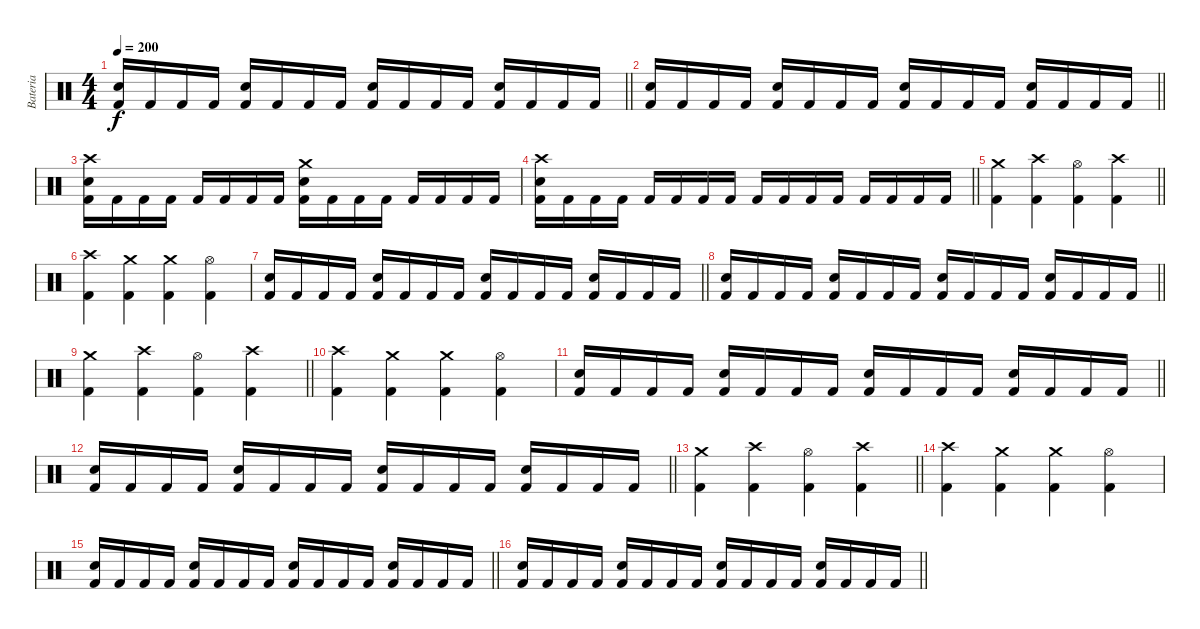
\track ("Bateria" "Bateria") {instrument percussion}
\staff {score}
\articulation defaults
\ts (4 4)
\tempo 200
\clef neutral
\barLineRight lightlight
\ks c
("Electric Snare (hit)" "Kick (hit) 2").16{dy f} "Kick (hit) 2".16 "Kick (hit) 2".16 "Kick (hit) 2".16 ("Electric Snare (hit)" "Kick (hit) 2").16 "Kick (hit) 2".16 "Kick (hit) 2".16 "Kick (hit) 2".16 ("Electric Snare (hit)" "Kick (hit) 2").16 "Kick (hit) 2".16 "Kick (hit) 2".16 "Kick (hit) 2".16 ("Electric Snare (hit)" "Kick (hit) 2").16 "Kick (hit) 2".16 "Kick (hit) 2".16 "Kick (hit) 2".16 |
\barLineRight lightlight
("Electric Snare (hit)" "Kick (hit) 2").16 "Kick (hit) 2".16 "Kick (hit) 2".16 "Kick (hit) 2".16 ("Electric Snare (hit)" "Kick (hit) 2").16 "Kick (hit) 2".16 "Kick (hit) 2".16 "Kick (hit) 2".16 ("Electric Snare (hit)" "Kick (hit) 2").16 "Kick (hit) 2".16 "Kick (hit) 2".16 "Kick (hit) 2".16 ("Electric Snare (hit)" "Kick (hit) 2").16 "Kick (hit) 2".16 "Kick (hit) 2".16 "Kick (hit) 2".16 |
("Crash high (hit)" "Electric Snare (hit)" "Kick (hit) 2").16 "Kick (hit) 2".16 "Kick (hit) 2".16 "Kick (hit) 2".16 "Kick (hit) 2".16 "Kick (hit) 2".16 "Kick (hit) 2".16 "Kick (hit) 2".16 ("Crash medium (hit)" "Electric Snare (hit)" "Kick (hit) 2").16 "Kick (hit) 2".16 "Kick (hit) 2".16 "Kick (hit) 2".16 "Kick (hit) 2".16 "Kick (hit) 2".16 "Kick (hit) 2".16 "Kick (hit) 2".16 |
\barLineRight lightlight
("Crash high (hit)" "Electric Snare (hit)" "Kick (hit) 2").16 "Kick (hit) 2".16 "Kick (hit) 2".16 "Kick (hit) 2".16 "Kick (hit) 2".16 "Kick (hit) 2".16 "Kick (hit) 2".16 "Kick (hit) 2".16 "Kick (hit) 2".16 "Kick (hit) 2".16 "Kick (hit) 2".16 "Kick (hit) 2".16 "Kick (hit) 2".16 "Kick (hit) 2".16 "Kick (hit) 2".16 "Kick (hit) 2".16 |
\barLineRight lightlight
("Crash medium (hit)" "Kick (hit) 2").4 ("Crash high (hit)" "Kick (hit) 2").4 ("Hi-Hat (open)" "Kick (hit) 2").4 ("Crash high (hit)" "Kick (hit) 2").4 |
("Crash high (hit)" "Kick (hit) 2").4 ("Crash medium (hit)" "Kick (hit) 2").4 ("Crash medium (hit)" "Kick (hit) 2").4 ("Hi-Hat (open)" "Kick (hit) 2").4 |
\barLineRight lightlight
("Electric Snare (hit)" "Kick (hit) 2").16 "Kick (hit) 2".16 "Kick (hit) 2".16 "Kick (hit) 2".16 ("Electric Snare (hit)" "Kick (hit) 2").16 "Kick (hit) 2".16 "Kick (hit) 2".16 "Kick (hit) 2".16 ("Electric Snare (hit)" "Kick (hit) 2").16 "Kick (hit) 2".16 "Kick (hit) 2".16 "Kick (hit) 2".16 ("Electric Snare (hit)" "Kick (hit) 2").16 "Kick (hit) 2".16 "Kick (hit) 2".16 "Kick (hit) 2".16 |
\barLineRight lightlight
("Electric Snare (hit)" "Kick (hit) 2").16 "Kick (hit) 2".16 "Kick (hit) 2".16 "Kick (hit) 2".16 ("Electric Snare (hit)" "Kick (hit) 2").16 "Kick (hit) 2".16 "Kick (hit) 2".16 "Kick (hit) 2".16 ("Electric Snare (hit)" "Kick (hit) 2").16 "Kick (hit) 2".16 "Kick (hit) 2".16 "Kick (hit) 2".16 ("Electric Snare (hit)" "Kick (hit) 2").16 "Kick (hit) 2".16 "Kick (hit) 2".16 "Kick (hit) 2".16 |
\barLineRight lightlight
("Crash medium (hit)" "Kick (hit) 2").4 ("Crash high (hit)" "Kick (hit) 2").4 ("Hi-Hat (open)" "Kick (hit) 2").4 ("Crash high (hit)" "Kick (hit) 2").4 |
("Crash high (hit)" "Kick (hit) 2").4 ("Crash medium (hit)" "Kick (hit) 2").4 ("Crash medium (hit)" "Kick (hit) 2").4 ("Hi-Hat (open)" "Kick (hit) 2").4 |
\barLineRight lightlight
("Electric Snare (hit)" "Kick (hit) 2").16 "Kick (hit) 2".16 "Kick (hit) 2".16 "Kick (hit) 2".16 ("Electric Snare (hit)" "Kick (hit) 2").16 "Kick (hit) 2".16 "Kick (hit) 2".16 "Kick (hit) 2".16 ("Electric Snare (hit)" "Kick (hit) 2").16 "Kick (hit) 2".16 "Kick (hit) 2".16 "Kick (hit) 2".16 ("Electric Snare (hit)" "Kick (hit) 2").16 "Kick (hit) 2".16 "Kick (hit) 2".16 "Kick (hit) 2".16 |
\barLineRight lightlight
("Electric Snare (hit)" "Kick (hit) 2").16 "Kick (hit) 2".16 "Kick (hit) 2".16 "Kick (hit) 2".16 ("Electric Snare (hit)" "Kick (hit) 2").16 "Kick (hit) 2".16 "Kick (hit) 2".16 "Kick (hit) 2".16 ("Electric Snare (hit)" "Kick (hit) 2").16 "Kick (hit) 2".16 "Kick (hit) 2".16 "Kick (hit) 2".16 ("Electric Snare (hit)" "Kick (hit) 2").16 "Kick (hit) 2".16 "Kick (hit) 2".16 "Kick (hit) 2".16 |
\barLineRight lightlight
("Crash medium (hit)" "Kick (hit) 2").4 ("Crash high (hit)" "Kick (hit) 2").4 ("Hi-Hat (open)" "Kick (hit) 2").4 ("Crash high (hit)" "Kick (hit) 2").4 |
("Crash high (hit)" "Kick (hit) 2").4 ("Crash medium (hit)" "Kick (hit) 2").4 ("Crash medium (hit)" "Kick (hit) 2").4 ("Hi-Hat (open)" "Kick (hit) 2").4 |
\barLineRight lightlight
("Electric Snare (hit)" "Kick (hit) 2").16 "Kick (hit) 2".16 "Kick (hit) 2".16 "Kick (hit) 2".16 ("Electric Snare (hit)" "Kick (hit) 2").16 "Kick (hit) 2".16 "Kick (hit) 2".16 "Kick (hit) 2".16 ("Electric Snare (hit)" "Kick (hit) 2").16 "Kick (hit) 2".16 "Kick (hit) 2".16 "Kick (hit) 2".16 ("Electric Snare (hit)" "Kick (hit) 2").16 "Kick (hit) 2".16 "Kick (hit) 2".16 "Kick (hit) 2".16 |
\barLineRight lightlight
("Electric Snare (hit)" "Kick (hit) 2").16 "Kick (hit) 2".16 "Kick (hit) 2".16 "Kick (hit) 2".16 ("Electric Snare (hit)" "Kick (hit) 2").16 "Kick (hit) 2".16 "Kick (hit) 2".16 "Kick (hit) 2".16 ("Electric Snare (hit)" "Kick (hit) 2").16 "Kick (hit) 2".16 "Kick (hit) 2".16 "Kick (hit) 2".16 ("Electric Snare (hit)" "Kick (hit) 2").16 "Kick (hit) 2".16 "Kick (hit) 2".16 "Kick (hit) 2".16
